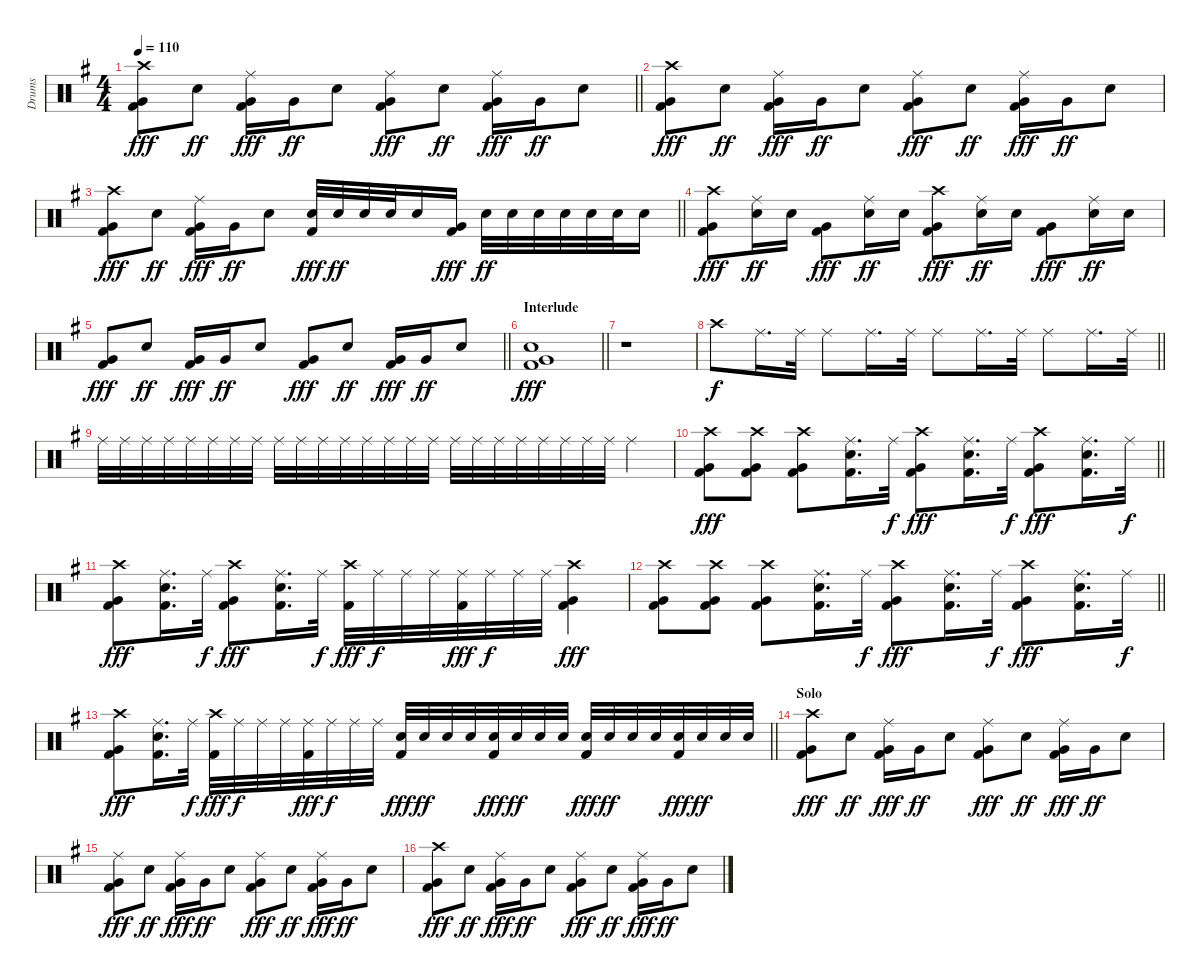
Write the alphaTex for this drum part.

\track ("Drums" "Drums") {instrument percussion}
\staff {score}
\articulation defaults
\ts (4 4)
\tempo 110
\clef neutral
\barLineRight lightlight
\ks g
("Crash high (hit)" "Very Low Tom (hit)" "Kick (hit) 2").8{dy fff} "Snare (hit) 2".8{dy ff} ("Ride (middle)" "Very Low Tom (hit)" "Kick (hit) 2").16{dy fff} "Very Low Tom (hit)".16{dy ff} "Snare (hit) 2".8 ("Ride (middle)" "Very Low Tom (hit)" "Kick (hit) 2").8{dy fff} "Snare (hit) 2".8{dy ff} ("Ride (middle)" "Very Low Tom (hit)" "Kick (hit) 2").16{dy fff} "Very Low Tom (hit)".16{dy ff} "Snare (hit) 2".8 |
("Crash high (hit)" "Very Low Tom (hit)" "Kick (hit) 2").8{dy fff} "Snare (hit) 2".8{dy ff} ("Ride (middle)" "Very Low Tom (hit)" "Kick (hit) 2").16{dy fff} "Very Low Tom (hit)".16{dy ff} "Snare (hit) 2".8 ("Ride (middle)" "Very Low Tom (hit)" "Kick (hit) 2").8{dy fff} "Snare (hit) 2".8{dy ff} ("Ride (middle)" "Very Low Tom (hit)" "Kick (hit) 2").16{dy fff} "Very Low Tom (hit)".16{dy ff} "Snare (hit) 2".8 |
\barLineRight lightlight
("Crash high (hit)" "Very Low Tom (hit)" "Kick (hit) 2").8{dy fff} "Snare (hit) 2".8{dy ff} ("Ride (middle)" "Very Low Tom (hit)" "Kick (hit) 2").16{dy fff} "Very Low Tom (hit)".16{dy ff} "Snare (hit) 2".8 ("Snare (hit) 2" "Kick (hit) 2").32{dy fff} "Snare (hit) 2".32{dy ff} "Snare (hit) 2".32 "Snare (hit) 2".32 "Snare (hit) 2".16 ("Very Low Tom (hit)" "Kick (hit) 2").16{dy fff} "Snare (hit) 2".32{dy ff} "Snare (hit) 2".32 "Snare (hit) 2".32 "Snare (hit) 2".32 "Snare (hit) 2".32 "Snare (hit) 2".32 "Snare (hit) 2".16 |
("Crash high (hit)" "Very Low Tom (hit)" "Kick (hit) 2").8{dy fff} ("Ride (middle)" "Snare (hit) 2").16{dy ff} "Snare (hit) 2".16 ("Very Low Tom (hit)" "Kick (hit) 2").8{dy fff} ("Ride (middle)" "Snare (hit) 2").16{dy ff} "Snare (hit) 2".16 ("Crash high (hit)" "Very Low Tom (hit)" "Kick (hit) 2").8{dy fff} ("Ride (middle)" "Snare (hit) 2").16{dy ff} "Snare (hit) 2".16 ("Very Low Tom (hit)" "Kick (hit) 2").8{dy fff} ("Ride (middle)" "Snare (hit) 2").16{dy ff} "Snare (hit) 2".16 |
\barLineRight lightlight
("Very Low Tom (hit)" "Kick (hit) 2").8{dy fff} "Snare (hit) 2".8{dy ff} ("Very Low Tom (hit)" "Kick (hit) 2").16{dy fff} "Very Low Tom (hit)".16{dy ff} "Snare (hit) 2".8 ("Very Low Tom (hit)" "Kick (hit) 2").8{dy fff} "Snare (hit) 2".8{dy ff} ("Very Low Tom (hit)" "Kick (hit) 2").16{dy fff} "Very Low Tom (hit)".16{dy ff} "Snare (hit) 2".8 |
\section ("" "Interlude")
\barLineRight lightlight
("Very Low Tom (hit)" "Snare (hit) 2" "Kick (hit) 2").1{dy fff} |
r.1 |
\barLineRight lightlight "Crash high (hit)".8{dy f} "Ride (middle)".16{d} "Ride (middle)".32 "Ride (middle)".8 "Ride (middle)".16{d} "Ride (middle)".32 "Ride (middle)".8 "Ride (middle)".16{d} "Ride (middle)".32 "Ride (middle)".8 "Ride (middle)".16{d} "Ride (middle)".32
|
"Ride (middle)".32 "Ride (middle)".32 "Ride (middle)".32 "Ride (middle)".32 "Ride (middle)".32 "Ride (middle)".32 "Ride (middle)".32 "Ride (middle)".32 "Ride (middle)".32 "Ride (middle)".32 "Ride (middle)".32 "Ride (middle)".32 "Ride (middle)".32 "Ride (middle)".32 "Ride (middle)".32 "Ride (middle)".32 "Ride (middle)".32 "Ride (middle)".32 "Ride (middle)".32 "Ride (middle)".32 "Ride (middle)".32 "Ride (middle)".32 "Ride (middle)".32 "Ride (middle)".32 "Ride (middle)".4 |
\barLineRight lightlight
("Crash high (hit)" "Very Low Tom (hit)" "Kick (hit) 2").8{dy fff} ("Crash high (hit)" "Very Low Tom (hit)" "Kick (hit) 2").8 ("Crash high (hit)" "Very Low Tom (hit)" "Kick (hit) 2").8 ("Ride (middle)" "Snare (hit) 2" "Kick (hit) 2").16{d} "Ride (middle)".32{dy f} ("Crash high (hit)" "Very Low Tom (hit)" "Kick (hit) 2").8{dy fff} ("Ride (middle)" "Snare (hit) 2" "Kick (hit) 2").16{d} "Ride (middle)".32{dy f} ("Crash high (hit)" "Very Low Tom (hit)" "Kick (hit) 2").8{dy fff} ("Ride (middle)" "Snare (hit) 2" "Kick (hit) 2").16{d} "Ride (middle)".32{dy f} |
("Crash high (hit)" "Very Low Tom (hit)" "Kick (hit) 2").8{dy fff} ("Ride (middle)" "Snare (hit) 2" "Kick (hit) 2").16{d} "Ride (middle)".32{dy f} ("Crash high (hit)" "Very Low Tom (hit)" "Kick (hit) 2").8{dy fff} ("Ride (middle)" "Snare (hit) 2" "Kick (hit) 2").16{d} "Ride (middle)".32{dy f} ("Crash high (hit)" "Kick (hit) 2").32{dy fff} "Ride (middle)".32{dy f} "Ride (middle)".32 "Ride (middle)".32 ("Ride (middle)" "Kick (hit) 2").32{dy fff} "Ride (middle)".32{dy f} "Ride (middle)".32 "Ride (middle)".32 ("Crash high (hit)" "Very Low Tom (hit)" "Kick (hit) 2").4{dy fff} |
\barLineRight lightlight
("Crash high (hit)" "Very Low Tom (hit)" "Kick (hit) 2").8 ("Crash high (hit)" "Very Low Tom (hit)" "Kick (hit) 2").8 ("Crash high (hit)" "Very Low Tom (hit)" "Kick (hit) 2").8 ("Ride (middle)" "Snare (hit) 2" "Kick (hit) 2").16{d} "Ride (middle)".32{dy f} ("Crash high (hit)" "Very Low Tom (hit)" "Kick (hit) 2").8{dy fff} ("Ride (middle)" "Snare (hit) 2" "Kick (hit) 2").16{d} "Ride (middle)".32{dy f} ("Crash high (hit)" "Very Low Tom (hit)" "Kick (hit) 2").8{dy fff} ("Ride (middle)" "Snare (hit) 2" "Kick (hit) 2").16{d} "Ride (middle)".32{dy f} |
\barLineRight lightlight
("Crash high (hit)" "Very Low Tom (hit)" "Kick (hit) 2").8{dy fff} ("Ride (middle)" "Snare (hit) 2" "Kick (hit) 2").16{d} "Ride (middle)".32{dy f} ("Crash high (hit)" "Kick (hit) 2").32{dy fff} "Ride (middle)".32{dy f} "Ride (middle)".32 "Ride (middle)".32 ("Ride (middle)" "Kick (hit) 2").32{dy fff} "Ride (middle)".32{dy f} "Ride (middle)".32 "Ride (middle)".32 ("Snare (hit) 2" "Kick (hit) 2").32{dy fff} "Snare (hit) 2".32{dy ff} "Snare (hit) 2".32 "Snare (hit) 2".32 ("Snare (hit) 2" "Kick (hit) 2").32{dy fff} "Snare (hit) 2".32{dy ff} "Snare (hit) 2".32 "Snare (hit) 2".32 ("Snare (hit) 2" "Kick (hit) 2").32{dy fff} "Snare (hit) 2".32{dy ff} "Snare (hit) 2".32 "Snare (hit) 2".32 ("Snare (hit) 2" "Kick (hit) 2").32{dy fff} "Snare (hit) 2".32{dy ff} "Snare (hit) 2".32 "Snare (hit) 2".32 |
\section ("" "Solo")
("Crash high (hit)" "Very Low Tom (hit)" "Kick (hit) 2").8{dy fff} "Snare (hit) 2".8{dy ff} ("Ride (middle)" "Very Low Tom (hit)" "Kick (hit) 2").16{dy fff} "Very Low Tom (hit)".16{dy ff} "Snare (hit) 2".8 ("Ride (middle)" "Very Low Tom (hit)" "Kick (hit) 2").8{dy fff} "Snare (hit) 2".8{dy ff} ("Ride (middle)" "Very Low Tom (hit)" "Kick (hit) 2").16{dy fff} "Very Low Tom (hit)".16{dy ff} "Snare (hit) 2".8 |
("Ride (middle)" "Very Low Tom (hit)" "Kick (hit) 2").8{dy fff} "Snare (hit) 2".8{dy ff} ("Ride (middle)" "Very Low Tom (hit)" "Kick (hit) 2").16{dy fff} "Very Low Tom (hit)".16{dy ff} "Snare (hit) 2".8 ("Ride (middle)" "Very Low Tom (hit)" "Kick (hit) 2").8{dy fff} "Snare (hit) 2".8{dy ff} ("Ride (middle)" "Very Low Tom (hit)" "Kick (hit) 2").16{dy fff} "Very Low Tom (hit)".16{dy ff} "Snare (hit) 2".8 |
("Crash high (hit)" "Very Low Tom (hit)" "Kick (hit) 2").8{dy fff} "Snare (hit) 2".8{dy ff} ("Ride (middle)" "Very Low Tom (hit)" "Kick (hit) 2").16{dy fff} "Very Low Tom (hit)".16{dy ff} "Snare (hit) 2".8 ("Ride (middle)" "Very Low Tom (hit)" "Kick (hit) 2").8{dy fff} "Snare (hit) 2".8{dy ff} ("Ride (middle)" "Very Low Tom (hit)" "Kick (hit) 2").16{dy fff} "Very Low Tom (hit)".16{dy ff} "Snare (hit) 2".8
